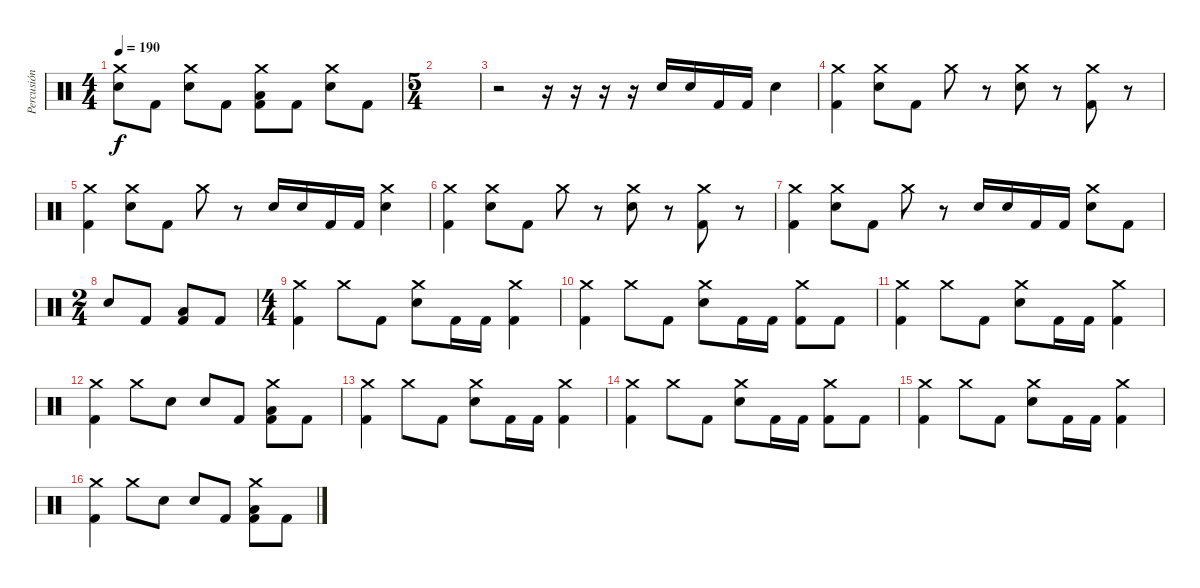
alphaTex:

\track ("Percusión" "Percusión") {instrument percussion}
\staff {score}
\articulation defaults
\ts (4 4)
\tempo 190
\clef neutral
\ks c
("Crash medium (hit)" "Electric Snare (hit)").8{dy f} "Kick (hit) 2".8 ("Crash medium (hit)" "Electric Snare (hit)").8 "Kick (hit) 2".8 ("Crash medium (hit)" "Low Floor Tom (hit)" "Kick (hit) 2").8 "Kick (hit) 2".8 ("Crash medium (hit)" "Electric Snare (hit)").8 "Kick (hit) 2".8 |
\ts (5 4)
|
r.2 r.16 r.16 r.16 r.16 "Electric Snare (hit)".16 "Electric Snare (hit)".16 "Kick (hit) 2".16 "Kick (hit) 2".16 "Electric Snare (hit)".4 |
("Crash medium (hit)" "Kick (hit) 2").4 ("Crash medium (hit)" "Electric Snare (hit)").8 "Kick (hit) 2".8 "Crash medium (hit)".8 r.8 ("Crash medium (hit)" "Electric Snare (hit)").8 r.8 ("Crash medium (hit)" "Kick (hit) 2").8 r.8 |
("Crash medium (hit)" "Kick (hit) 2").4 ("Crash medium (hit)" "Electric Snare (hit)").8 "Kick (hit) 2".8 "Crash medium (hit)".8 r.8 "Electric Snare (hit)".16 "Electric Snare (hit)".16 "Kick (hit) 2".16 "Kick (hit) 2".16 ("Crash medium (hit)" "Electric Snare (hit)").4 |
("Crash medium (hit)" "Kick (hit) 2").4 ("Crash medium (hit)" "Electric Snare (hit)").8 "Kick (hit) 2".8 "Crash medium (hit)".8 r.8 ("Crash medium (hit)" "Electric Snare (hit)").8 r.8 ("Crash medium (hit)" "Kick (hit) 2").8 r.8 |
("Crash medium (hit)" "Kick (hit) 2").4 ("Crash medium (hit)" "Electric Snare (hit)").8 "Kick (hit) 2".8 "Crash medium (hit)".8 r.8 "Electric Snare (hit)".16 "Electric Snare (hit)".16 "Kick (hit) 2".16 "Kick (hit) 2".16 ("Crash medium (hit)" "Electric Snare (hit)").8 "Kick (hit) 2".8 |
\ts (2 4)
"Electric Snare (hit)".8 "Kick (hit) 2".8 ("Low Floor Tom (hit)" "Kick (hit) 2").8 "Kick (hit) 2".8 |
\ts (4 4)
("Crash medium (hit)" "Kick (hit) 2").4 "Crash medium (hit)".8 "Kick (hit) 2".8 ("Crash medium (hit)" "Electric Snare (hit)").8 "Kick (hit) 2".16 "Kick (hit) 2".16 ("Crash medium (hit)" "Kick (hit) 2").4 |
("Crash medium (hit)" "Kick (hit) 2").4 "Crash medium (hit)".8 "Kick (hit) 2".8 ("Crash medium (hit)" "Electric Snare (hit)").8 "Kick (hit) 2".16 "Kick (hit) 2".16 ("Crash medium (hit)" "Kick (hit) 2").8 "Kick (hit) 2".8 |
("Crash medium (hit)" "Kick (hit) 2").4 "Crash medium (hit)".8 "Kick (hit) 2".8 ("Crash medium (hit)" "Electric Snare (hit)").8 "Kick (hit) 2".16 "Kick (hit) 2".16 ("Crash medium (hit)" "Kick (hit) 2").4 |
("Crash medium (hit)" "Kick (hit) 2").4 "Crash medium (hit)".8 "Electric Snare (hit)".8 "Electric Snare (hit)".8 "Kick (hit) 2".8 ("Crash medium (hit)" "Low Floor Tom (hit)" "Kick (hit) 2").8 "Kick (hit) 2".8 |
("Crash medium (hit)" "Kick (hit) 2").4 "Crash medium (hit)".8 "Kick (hit) 2".8 ("Crash medium (hit)" "Electric Snare (hit)").8 "Kick (hit) 2".16 "Kick (hit) 2".16 ("Crash medium (hit)" "Kick (hit) 2").4 |
("Crash medium (hit)" "Kick (hit) 2").4 "Crash medium (hit)".8 "Kick (hit) 2".8 ("Crash medium (hit)" "Electric Snare (hit)").8 "Kick (hit) 2".16 "Kick (hit) 2".16 ("Crash medium (hit)" "Kick (hit) 2").8 "Kick (hit) 2".8 |
("Crash medium (hit)" "Kick (hit) 2").4 "Crash medium (hit)".8 "Kick (hit) 2".8 ("Crash medium (hit)" "Electric Snare (hit)").8 "Kick (hit) 2".16 "Kick (hit) 2".16 ("Crash medium (hit)" "Kick (hit) 2").4 |
("Crash medium (hit)" "Kick (hit) 2").4 "Crash medium (hit)".8 "Electric Snare (hit)".8 "Electric Snare (hit)".8 "Kick (hit) 2".8 ("Crash medium (hit)" "Low Floor Tom (hit)" "Kick (hit) 2").8 "Kick (hit) 2".8
